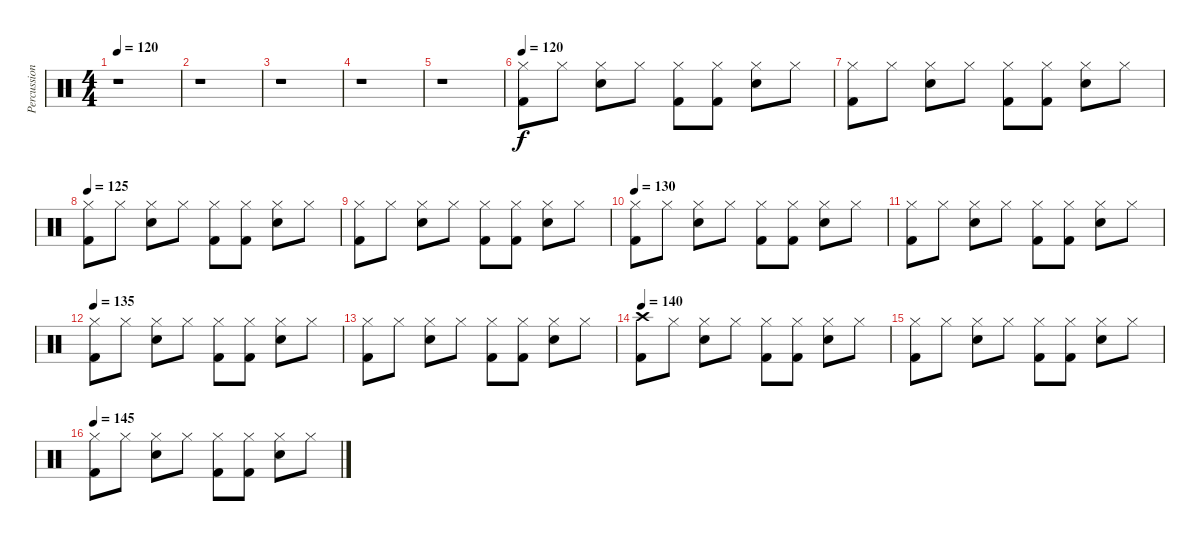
\track ("Percussion" "Percussion") {instrument percussion}
\staff {score}
\articulation defaults
\ts (4 4)
\tempo 120
\clef neutral
\ks c
r.1{dy f} |
r.1 |
r.1 |
r.1 |
r.1 |
\tempo 120
("Hi-Hat (closed)" "Kick (hit) 2").8 "Hi-Hat (closed)".8 ("Hi-Hat (closed)" "Snare (hit) 2").8 "Hi-Hat (closed)".8 ("Hi-Hat (closed)" "Kick (hit) 2").8 ("Hi-Hat (closed)" "Kick (hit) 2").8 ("Hi-Hat (closed)" "Snare (hit) 2").8 "Hi-Hat (closed)".8 |
("Hi-Hat (closed)" "Kick (hit) 2").8 "Hi-Hat (closed)".8 ("Hi-Hat (closed)" "Snare (hit) 2").8 "Hi-Hat (closed)".8 ("Hi-Hat (closed)" "Kick (hit) 2").8 ("Hi-Hat (closed)" "Kick (hit) 2").8 ("Hi-Hat (closed)" "Snare (hit) 2").8 "Hi-Hat (closed)".8 |
\tempo 125
("Hi-Hat (closed)" "Kick (hit) 2").8 "Hi-Hat (closed)".8 ("Hi-Hat (closed)" "Snare (hit) 2").8 "Hi-Hat (closed)".8 ("Hi-Hat (closed)" "Kick (hit) 2").8 ("Hi-Hat (closed)" "Kick (hit) 2").8 ("Hi-Hat (closed)" "Snare (hit) 2").8 "Hi-Hat (closed)".8 |
("Hi-Hat (closed)" "Kick (hit) 2").8 "Hi-Hat (closed)".8 ("Hi-Hat (closed)" "Snare (hit) 2").8 "Hi-Hat (closed)".8 ("Hi-Hat (closed)" "Kick (hit) 2").8 ("Hi-Hat (closed)" "Kick (hit) 2").8 ("Hi-Hat (closed)" "Snare (hit) 2").8 "Hi-Hat (closed)".8 |
\tempo 130
("Hi-Hat (closed)" "Kick (hit) 2").8 "Hi-Hat (closed)".8 ("Hi-Hat (closed)" "Snare (hit) 2").8 "Hi-Hat (closed)".8 ("Hi-Hat (closed)" "Kick (hit) 2").8 ("Hi-Hat (closed)" "Kick (hit) 2").8 ("Hi-Hat (closed)" "Snare (hit) 2").8 "Hi-Hat (closed)".8 |
("Hi-Hat (closed)" "Kick (hit) 2").8 "Hi-Hat (closed)".8 ("Hi-Hat (closed)" "Snare (hit) 2").8 "Hi-Hat (closed)".8 ("Hi-Hat (closed)" "Kick (hit) 2").8 ("Hi-Hat (closed)" "Kick (hit) 2").8 ("Hi-Hat (closed)" "Snare (hit) 2").8 "Hi-Hat (closed)".8 |
\tempo 135
("Hi-Hat (closed)" "Kick (hit) 2").8 "Hi-Hat (closed)".8 ("Hi-Hat (closed)" "Snare (hit) 2").8 "Hi-Hat (closed)".8 ("Hi-Hat (closed)" "Kick (hit) 2").8 ("Hi-Hat (closed)" "Kick (hit) 2").8 ("Hi-Hat (closed)" "Snare (hit) 2").8 "Hi-Hat (closed)".8 |
("Hi-Hat (closed)" "Kick (hit) 2").8 "Hi-Hat (closed)".8 ("Hi-Hat (closed)" "Snare (hit) 2").8 "Hi-Hat (closed)".8 ("Hi-Hat (closed)" "Kick (hit) 2").8 ("Hi-Hat (closed)" "Kick (hit) 2").8 ("Hi-Hat (closed)" "Snare (hit) 2").8 "Hi-Hat (closed)".8 |
\tempo 140
("Crash high (hit)" "Kick (hit) 2").8 "Hi-Hat (closed)".8 ("Hi-Hat (closed)" "Snare (hit) 2").8 "Hi-Hat (closed)".8 ("Hi-Hat (closed)" "Kick (hit) 2").8 ("Hi-Hat (closed)" "Kick (hit) 2").8 ("Hi-Hat (closed)" "Snare (hit) 2").8 "Hi-Hat (closed)".8 |
("Hi-Hat (closed)" "Kick (hit) 2").8 "Hi-Hat (closed)".8 ("Hi-Hat (closed)" "Snare (hit) 2").8 "Hi-Hat (closed)".8 ("Hi-Hat (closed)" "Kick (hit) 2").8 ("Hi-Hat (closed)" "Kick (hit) 2").8 ("Hi-Hat (closed)" "Snare (hit) 2").8 "Hi-Hat (closed)".8 |
\tempo 145
("Hi-Hat (closed)" "Kick (hit) 2").8 "Hi-Hat (closed)".8 ("Hi-Hat (closed)" "Snare (hit) 2").8 "Hi-Hat (closed)".8 ("Hi-Hat (closed)" "Kick (hit) 2").8 ("Hi-Hat (closed)" "Kick (hit) 2").8 ("Hi-Hat (closed)" "Snare (hit) 2").8 "Hi-Hat (closed)".8
